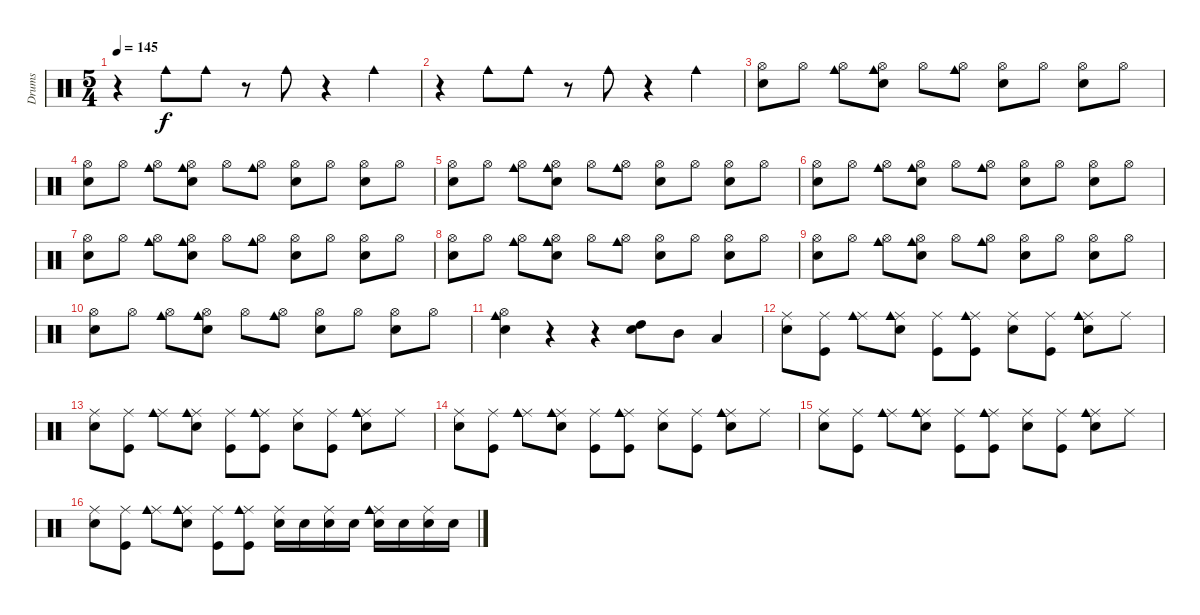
\track ("Drums" "Drums") {instrument percussion}
\staff {score}
\articulation defaults
\ts (5 4)
\tempo 145
\clef neutral
\ks c
r.4{dy f} "Cowbell medium (hit)".8 "Cowbell medium (hit)".8 r.8 "Cowbell medium (hit)".8 r.4 "Cowbell medium (hit)".4 |
r.4 "Cowbell medium (hit)".8 "Cowbell medium (hit)".8 r.8 "Cowbell medium (hit)".8 r.4 "Cowbell medium (hit)".4 |
("Hi-Hat (open)" "Snare (hit) 2").8 "Hi-Hat (open)".8 ("Hi-Hat (open)" "Cowbell medium (hit)").8 ("Hi-Hat (open)" "Cowbell medium (hit)" "Snare (hit) 2").8 "Hi-Hat (open)".8 ("Hi-Hat (open)" "Cowbell medium (hit)").8 ("Hi-Hat (open)" "Snare (hit) 2").8 "Hi-Hat (open)".8 ("Hi-Hat (open)" "Snare (hit) 2").8 "Hi-Hat (open)".8 |
("Hi-Hat (open)" "Snare (hit) 2").8 "Hi-Hat (open)".8 ("Hi-Hat (open)" "Cowbell medium (hit)").8 ("Hi-Hat (open)" "Cowbell medium (hit)" "Snare (hit) 2").8 "Hi-Hat (open)".8 ("Hi-Hat (open)" "Cowbell medium (hit)").8 ("Hi-Hat (open)" "Snare (hit) 2").8 "Hi-Hat (open)".8 ("Hi-Hat (open)" "Snare (hit) 2").8 "Hi-Hat (open)".8 |
("Hi-Hat (open)" "Snare (hit) 2").8 "Hi-Hat (open)".8 ("Hi-Hat (open)" "Cowbell medium (hit)").8 ("Hi-Hat (open)" "Cowbell medium (hit)" "Snare (hit) 2").8 "Hi-Hat (open)".8 ("Hi-Hat (open)" "Cowbell medium (hit)").8 ("Hi-Hat (open)" "Snare (hit) 2").8 "Hi-Hat (open)".8 ("Hi-Hat (open)" "Snare (hit) 2").8 "Hi-Hat (open)".8 |
("Hi-Hat (open)" "Snare (hit) 2").8 "Hi-Hat (open)".8 ("Hi-Hat (open)" "Cowbell medium (hit)").8 ("Hi-Hat (open)" "Cowbell medium (hit)" "Snare (hit) 2").8 "Hi-Hat (open)".8 ("Hi-Hat (open)" "Cowbell medium (hit)").8 ("Hi-Hat (open)" "Snare (hit) 2").8 "Hi-Hat (open)".8 ("Hi-Hat (open)" "Snare (hit) 2").8 "Hi-Hat (open)".8 |
("Hi-Hat (open)" "Snare (hit) 2").8 "Hi-Hat (open)".8 ("Hi-Hat (open)" "Cowbell medium (hit)").8 ("Hi-Hat (open)" "Cowbell medium (hit)" "Snare (hit) 2").8 "Hi-Hat (open)".8 ("Hi-Hat (open)" "Cowbell medium (hit)").8 ("Hi-Hat (open)" "Snare (hit) 2").8 "Hi-Hat (open)".8 ("Hi-Hat (open)" "Snare (hit) 2").8 "Hi-Hat (open)".8 |
("Hi-Hat (open)" "Snare (hit) 2").8 "Hi-Hat (open)".8 ("Hi-Hat (open)" "Cowbell medium (hit)").8 ("Hi-Hat (open)" "Cowbell medium (hit)" "Snare (hit) 2").8 "Hi-Hat (open)".8 ("Hi-Hat (open)" "Cowbell medium (hit)").8 ("Hi-Hat (open)" "Snare (hit) 2").8 "Hi-Hat (open)".8 ("Hi-Hat (open)" "Snare (hit) 2").8 "Hi-Hat (open)".8 |
("Hi-Hat (open)" "Snare (hit) 2").8 "Hi-Hat (open)".8 ("Hi-Hat (open)" "Cowbell medium (hit)").8 ("Hi-Hat (open)" "Cowbell medium (hit)" "Snare (hit) 2").8 "Hi-Hat (open)".8 ("Hi-Hat (open)" "Cowbell medium (hit)").8 ("Hi-Hat (open)" "Snare (hit) 2").8 "Hi-Hat (open)".8 ("Hi-Hat (open)" "Snare (hit) 2").8 "Hi-Hat (open)".8 |
("Hi-Hat (open)" "Snare (hit) 2").8 "Hi-Hat (open)".8 ("Hi-Hat (open)" "Cowbell medium (hit)").8 ("Hi-Hat (open)" "Cowbell medium (hit)" "Snare (hit) 2").8 "Hi-Hat (open)".8 ("Hi-Hat (open)" "Cowbell medium (hit)").8 ("Hi-Hat (open)" "Snare (hit) 2").8 "Hi-Hat (open)".8 ("Hi-Hat (open)" "Snare (hit) 2").8 "Hi-Hat (open)".8 |
("Hi-Hat (open)" "Cowbell medium (hit)" "Snare (hit) 2").4 r.4 r.4 ("Snare (hit) 2" "High Tom (hit)").8 "Mid Tom (hit)".8 "Low Tom (hit)".4 |
("Ride (middle)" "Snare (hit) 2").8 ("Ride (middle)" "Kick (hit)").8 ("Ride (middle)" "Cowbell medium (hit)").8 ("Ride (middle)" "Cowbell medium (hit)" "Snare (hit) 2").8 ("Ride (middle)" "Kick (hit)").8 ("Ride (middle)" "Cowbell medium (hit)" "Kick (hit)").8 ("Ride (middle)" "Snare (hit) 2").8 ("Ride (middle)" "Kick (hit)").8 ("Ride (middle)" "Cowbell medium (hit)" "Snare (hit) 2").8 "Ride (middle)".8 |
("Ride (middle)" "Snare (hit) 2").8 ("Ride (middle)" "Kick (hit)").8 ("Ride (middle)" "Cowbell medium (hit)").8 ("Ride (middle)" "Cowbell medium (hit)" "Snare (hit) 2").8 ("Ride (middle)" "Kick (hit)").8 ("Ride (middle)" "Cowbell medium (hit)" "Kick (hit)").8 ("Ride (middle)" "Snare (hit) 2").8 ("Ride (middle)" "Kick (hit)").8 ("Ride (middle)" "Cowbell medium (hit)" "Snare (hit) 2").8 "Ride (middle)".8 |
("Ride (middle)" "Snare (hit) 2").8 ("Ride (middle)" "Kick (hit)").8 ("Ride (middle)" "Cowbell medium (hit)").8 ("Ride (middle)" "Cowbell medium (hit)" "Snare (hit) 2").8 ("Ride (middle)" "Kick (hit)").8 ("Ride (middle)" "Cowbell medium (hit)" "Kick (hit)").8 ("Ride (middle)" "Snare (hit) 2").8 ("Ride (middle)" "Kick (hit)").8 ("Ride (middle)" "Cowbell medium (hit)" "Snare (hit) 2").8 "Ride (middle)".8 |
("Ride (middle)" "Snare (hit) 2").8 ("Ride (middle)" "Kick (hit)").8 ("Ride (middle)" "Cowbell medium (hit)").8 ("Ride (middle)" "Cowbell medium (hit)" "Snare (hit) 2").8 ("Ride (middle)" "Kick (hit)").8 ("Ride (middle)" "Cowbell medium (hit)" "Kick (hit)").8 ("Ride (middle)" "Snare (hit) 2").8 ("Ride (middle)" "Kick (hit)").8 ("Ride (middle)" "Cowbell medium (hit)" "Snare (hit) 2").8 "Ride (middle)".8 |
("Ride (middle)" "Snare (hit) 2").8 ("Ride (middle)" "Kick (hit)").8 ("Ride (middle)" "Cowbell medium (hit)").8 ("Ride (middle)" "Cowbell medium (hit)" "Snare (hit) 2").8 ("Ride (middle)" "Kick (hit)").8 ("Ride (middle)" "Cowbell medium (hit)" "Kick (hit)").8 ("Ride (middle)" "Snare (hit) 2").16 "Snare (hit) 2".16 ("Ride (middle)" "Snare (hit) 2").16 "Snare (hit) 2".16 ("Ride (middle)" "Cowbell medium (hit)" "Snare (hit) 2").16 "Snare (hit) 2".16 ("Ride (middle)" "Snare (hit) 2").16 "Snare (hit) 2".16
